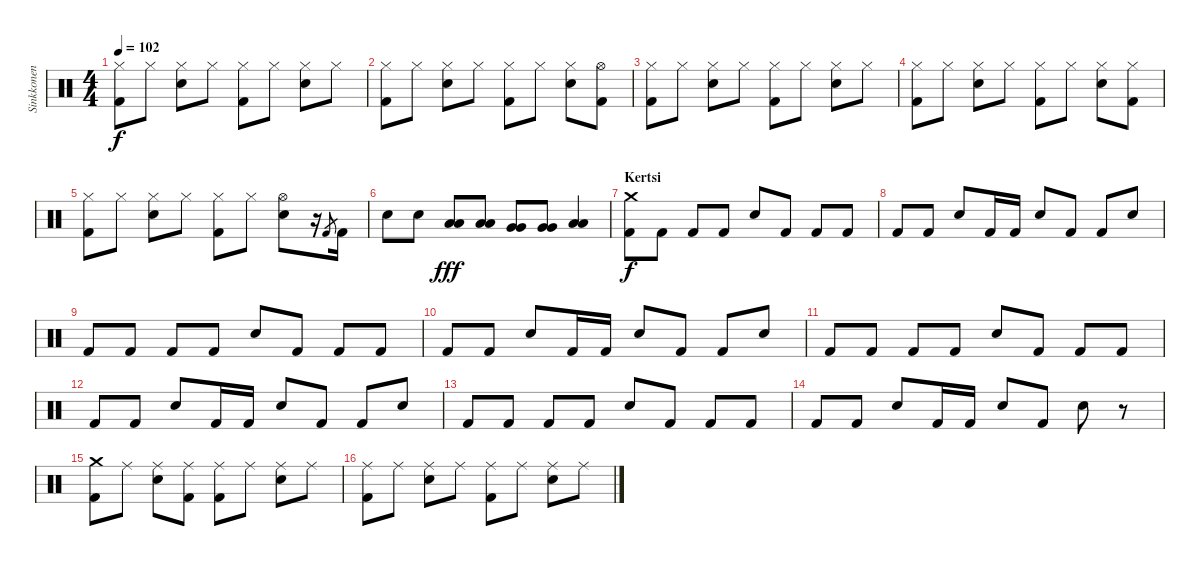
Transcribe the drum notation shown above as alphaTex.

\track ("Sinkkonen" "Sinkkonen") {instrument percussion}
\staff {score}
\articulation defaults
\ts (4 4)
\tempo 102
\clef neutral
\ks c
("Kick (hit) 2" "Hi-Hat (closed)").8{dy f} "Hi-Hat (closed)".8 ("Hi-Hat (closed)" "Snare (hit) 2").8 "Hi-Hat (closed)".8 ("Kick (hit) 2" "Hi-Hat (closed)").8 "Hi-Hat (closed)".8 ("Hi-Hat (closed)" "Snare (hit) 2").8 "Hi-Hat (closed)".8 |
("Kick (hit) 2" "Hi-Hat (closed)").8 "Hi-Hat (closed)".8 ("Hi-Hat (closed)" "Snare (hit) 2").8 "Hi-Hat (closed)".8 ("Kick (hit) 2" "Hi-Hat (closed)").8 "Hi-Hat (closed)".8 ("Hi-Hat (closed)" "Snare (hit) 2").8 ("Kick (hit) 2" "Hi-Hat (open)").8 |
("Kick (hit) 2" "Hi-Hat (closed)").8 "Hi-Hat (closed)".8 ("Hi-Hat (closed)" "Snare (hit) 2").8 "Hi-Hat (closed)".8 ("Kick (hit) 2" "Hi-Hat (closed)").8 "Hi-Hat (closed)".8 ("Hi-Hat (closed)" "Snare (hit) 2").8 "Hi-Hat (closed)".8 |
("Kick (hit) 2" "Hi-Hat (closed)").8 "Hi-Hat (closed)".8 ("Hi-Hat (closed)" "Snare (hit) 2").8 "Hi-Hat (closed)".8 ("Kick (hit) 2" "Hi-Hat (closed)").8 "Hi-Hat (closed)".8 ("Hi-Hat (closed)" "Snare (hit) 2").8 ("Kick (hit) 2" "Hi-Hat (closed)").8 |
("Kick (hit) 2" "Hi-Hat (closed)").8 "Hi-Hat (closed)".8 ("Hi-Hat (closed)" "Snare (hit) 2").8 "Hi-Hat (closed)".8 ("Kick (hit) 2" "Hi-Hat (closed)").8 "Hi-Hat (closed)".8 ("Hi-Hat (open)" "Snare (hit) 2").8 r.16 "Kick (hit) 2".8{gr} "Kick (hit) 2".16 |
"Snare (hit) 2".8 "Snare (hit) 2".8 ("Low Tom (hit)" "Low Tom (hit)").8{dy fff} ("Low Tom (hit)" "Low Tom (hit)").8 ("Very Low Tom (hit)" "Very Low Tom (hit)").8 ("Very Low Tom (hit)" "Very Low Tom (hit)").8 ("Low Floor Tom (hit)" "Low Floor Tom (hit)").4 |
\section ("" "Kertsi")
("Kick (hit) 2" "Crash medium (hit)").8{dy f} "Kick (hit) 2".8 "Kick (hit) 2".8 "Kick (hit) 2".8 "Snare (hit) 2".8 "Kick (hit) 2".8 "Kick (hit) 2".8 "Kick (hit) 2".8 |
"Kick (hit) 2".8 "Kick (hit) 2".8 "Snare (hit) 2".8 "Kick (hit) 2".16 "Kick (hit) 2".16 "Snare (hit) 2".8 "Kick (hit) 2".8 "Kick (hit) 2".8 "Snare (hit) 2".8 |
"Kick (hit) 2".8 "Kick (hit) 2".8 "Kick (hit) 2".8 "Kick (hit) 2".8 "Snare (hit) 2".8 "Kick (hit) 2".8 "Kick (hit) 2".8 "Kick (hit) 2".8 |
"Kick (hit) 2".8 "Kick (hit) 2".8 "Snare (hit) 2".8 "Kick (hit) 2".16 "Kick (hit) 2".16 "Snare (hit) 2".8 "Kick (hit) 2".8 "Kick (hit) 2".8 "Snare (hit) 2".8 |
"Kick (hit) 2".8 "Kick (hit) 2".8 "Kick (hit) 2".8 "Kick (hit) 2".8 "Snare (hit) 2".8 "Kick (hit) 2".8 "Kick (hit) 2".8 "Kick (hit) 2".8 |
"Kick (hit) 2".8 "Kick (hit) 2".8 "Snare (hit) 2".8 "Kick (hit) 2".16 "Kick (hit) 2".16 "Snare (hit) 2".8 "Kick (hit) 2".8 "Kick (hit) 2".8 "Snare (hit) 2".8 |
"Kick (hit) 2".8 "Kick (hit) 2".8 "Kick (hit) 2".8 "Kick (hit) 2".8 "Snare (hit) 2".8 "Kick (hit) 2".8 "Kick (hit) 2".8 "Kick (hit) 2".8 |
"Kick (hit) 2".8 "Kick (hit) 2".8 "Snare (hit) 2".8 "Kick (hit) 2".16 "Kick (hit) 2".16 "Snare (hit) 2".8 "Kick (hit) 2".8 "Snare (hit) 2".8 r.8 |
("Kick (hit) 2" "Crash medium (hit)").8 "Ride (middle)".8 ("Ride (middle)" "Snare (hit) 2").8 ("Kick (hit) 2" "Ride (middle)").8 ("Kick (hit) 2" "Ride (middle)").8 "Ride (middle)".8 ("Ride (middle)" "Snare (hit) 2").8 "Ride (middle)".8 |
("Kick (hit) 2" "Ride (middle)").8 "Ride (middle)".8 ("Ride (middle)" "Snare (hit) 2").8 "Ride (middle)".8 ("Kick (hit) 2" "Ride (middle)").8 "Ride (middle)".8 ("Ride (middle)" "Snare (hit) 2").8 "Ride (middle)".8
